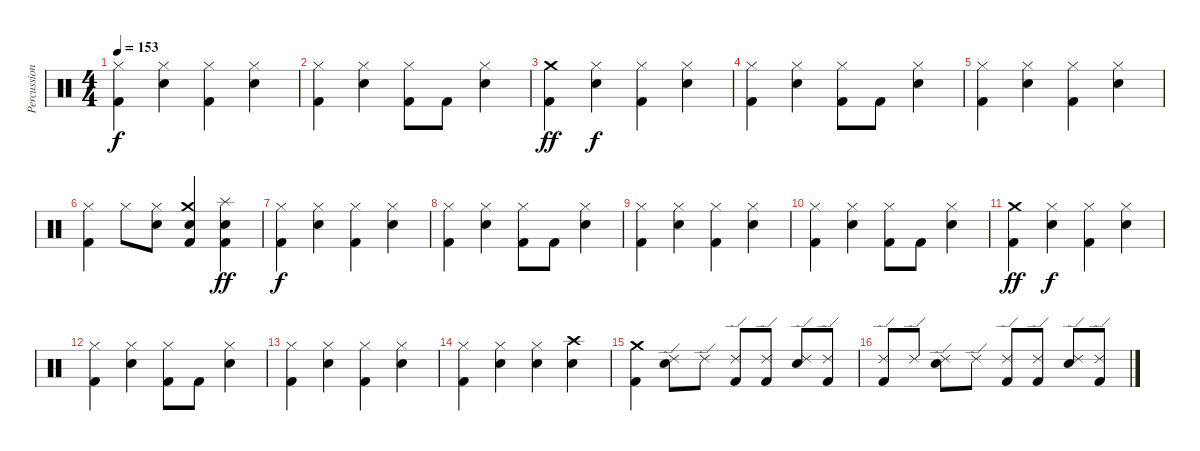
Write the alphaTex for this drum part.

\track ("Percussion" "Percussion") {instrument percussion}
\staff {score}
\articulation defaults
\ts (4 4)
\tempo 153
\clef neutral
\ks c
("Hi-Hat (closed)" "Kick (hit) 2").4{dy f} ("Hi-Hat (closed)" "Electric Snare (hit)").4 ("Hi-Hat (closed)" "Kick (hit) 2").4 ("Hi-Hat (closed)" "Electric Snare (hit)").4 |
("Hi-Hat (closed)" "Kick (hit) 2").4 ("Hi-Hat (closed)" "Electric Snare (hit)").4 ("Hi-Hat (closed)" "Kick (hit) 2").8 "Kick (hit) 2".8 ("Hi-Hat (closed)" "Electric Snare (hit)").4 |
("Crash medium (hit)" "Kick (hit) 2").4{dy ff} ("Hi-Hat (closed)" "Electric Snare (hit)").4{dy f} ("Hi-Hat (closed)" "Kick (hit) 2").4 ("Hi-Hat (closed)" "Electric Snare (hit)").4 |
("Hi-Hat (closed)" "Kick (hit) 2").4 ("Hi-Hat (closed)" "Electric Snare (hit)").4 ("Hi-Hat (closed)" "Kick (hit) 2").8 "Kick (hit) 2".8 ("Hi-Hat (closed)" "Electric Snare (hit)").4 |
("Hi-Hat (closed)" "Kick (hit) 2").4 ("Hi-Hat (closed)" "Electric Snare (hit)").4 ("Hi-Hat (closed)" "Kick (hit) 2").4 ("Hi-Hat (closed)" "Electric Snare (hit)").4 |
("Hi-Hat (closed)" "Kick (hit) 2").4 "Hi-Hat (closed)".8 ("Hi-Hat (closed)" "Electric Snare (hit)").8 ("Crash medium (hit)" "Snare (hit) 2" "Kick (hit) 2").4 ("Splash (hit)" "Electric Snare (hit)" "Kick (hit) 2").4{dy ff} |
("Hi-Hat (closed)" "Kick (hit) 2").4{dy f} ("Hi-Hat (closed)" "Electric Snare (hit)").4 ("Hi-Hat (closed)" "Kick (hit) 2").4 ("Hi-Hat (closed)" "Electric Snare (hit)").4 |
("Hi-Hat (closed)" "Kick (hit) 2").4 ("Hi-Hat (closed)" "Electric Snare (hit)").4 ("Hi-Hat (closed)" "Kick (hit) 2").8 "Kick (hit) 2".8 ("Hi-Hat (closed)" "Electric Snare (hit)").4 |
("Hi-Hat (closed)" "Kick (hit) 2").4 ("Hi-Hat (closed)" "Electric Snare (hit)").4 ("Hi-Hat (closed)" "Kick (hit) 2").4 ("Hi-Hat (closed)" "Electric Snare (hit)").4 |
("Hi-Hat (closed)" "Kick (hit) 2").4 ("Hi-Hat (closed)" "Electric Snare (hit)").4 ("Hi-Hat (closed)" "Kick (hit) 2").8 "Kick (hit) 2".8 ("Hi-Hat (closed)" "Electric Snare (hit)").4 |
("Crash medium (hit)" "Kick (hit) 2").4{dy ff} ("Hi-Hat (closed)" "Electric Snare (hit)").4{dy f} ("Hi-Hat (closed)" "Kick (hit) 2").4 ("Hi-Hat (closed)" "Electric Snare (hit)").4 |
("Hi-Hat (closed)" "Kick (hit) 2").4 ("Hi-Hat (closed)" "Electric Snare (hit)").4 ("Hi-Hat (closed)" "Kick (hit) 2").8 "Kick (hit) 2".8 ("Hi-Hat (closed)" "Electric Snare (hit)").4 |
("Hi-Hat (closed)" "Kick (hit) 2").4 ("Hi-Hat (closed)" "Electric Snare (hit)").4 ("Hi-Hat (closed)" "Kick (hit) 2").4 ("Hi-Hat (closed)" "Electric Snare (hit)").4 |
("Hi-Hat (closed)" "Kick (hit) 2").4 ("Hi-Hat (closed)" "Electric Snare (hit)").4 ("Hi-Hat (closed)" "Snare (hit) 2").4 ("Crash high (hit)" "Electric Snare (hit)").4 |
("Crash medium (hit)" "Kick (hit) 2").4 ("Ride (edge) 2" "Electric Snare (hit)").8 "Ride (edge) 2".8 ("Ride (edge) 2" "Kick (hit) 2").8 ("Ride (edge) 2" "Kick (hit) 2").8 ("Ride (edge) 2" "Electric Snare (hit)").8 ("Ride (edge) 2" "Kick (hit) 2").8 |
("Ride (edge) 2" "Kick (hit) 2").8 "Ride (edge) 2".8 ("Ride (edge) 2" "Electric Snare (hit)").8 "Ride (edge) 2".8 ("Ride (edge) 2" "Kick (hit) 2").8 ("Ride (edge) 2" "Kick (hit) 2").8 ("Ride (edge) 2" "Electric Snare (hit)").8 ("Ride (edge) 2" "Kick (hit) 2").8
